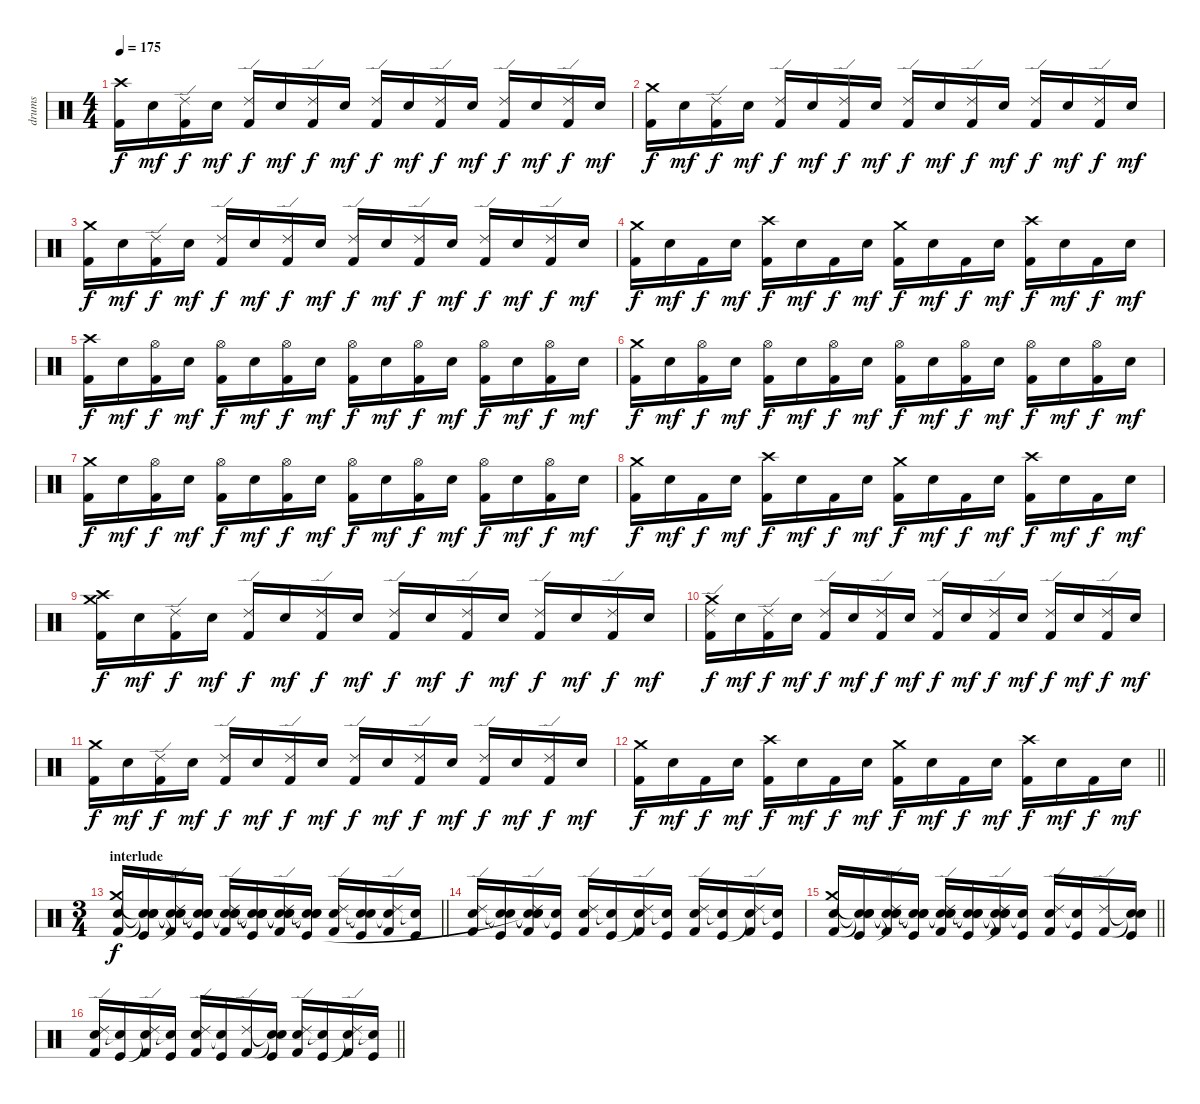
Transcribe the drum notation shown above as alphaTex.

\track ("drums" "drums") {instrument percussion}
\staff {score}
\articulation defaults
\ts (4 4)
\tempo 175
\clef neutral
\ks c
("Crash high (hit)" "Kick (hit) 2").16{dy f} "Electric Snare (hit)".16{dy mf} ("Ride (edge) 2" "Kick (hit) 2").16{dy f} "Electric Snare (hit)".16{dy mf} ("Ride (edge) 2" "Kick (hit) 2").16{dy f} "Electric Snare (hit)".16{dy mf} ("Ride (edge) 2" "Kick (hit) 2").16{dy f} "Electric Snare (hit)".16{dy mf} ("Ride (edge) 2" "Kick (hit) 2").16{dy f} "Electric Snare (hit)".16{dy mf} ("Ride (edge) 2" "Kick (hit) 2").16{dy f} "Electric Snare (hit)".16{dy mf} ("Ride (edge) 2" "Kick (hit) 2").16{dy f} "Electric Snare (hit)".16{dy mf} ("Ride (edge) 2" "Kick (hit) 2").16{dy f} "Electric Snare (hit)".16{dy mf} |
("Crash medium (hit)" "Kick (hit) 2").16{dy f} "Electric Snare (hit)".16{dy mf} ("Ride (edge) 2" "Kick (hit) 2").16{dy f} "Electric Snare (hit)".16{dy mf} ("Ride (edge) 2" "Kick (hit) 2").16{dy f} "Electric Snare (hit)".16{dy mf} ("Ride (edge) 2" "Kick (hit) 2").16{dy f} "Electric Snare (hit)".16{dy mf} ("Ride (edge) 2" "Kick (hit) 2").16{dy f} "Electric Snare (hit)".16{dy mf} ("Ride (edge) 2" "Kick (hit) 2").16{dy f} "Electric Snare (hit)".16{dy mf} ("Ride (edge) 2" "Kick (hit) 2").16{dy f} "Electric Snare (hit)".16{dy mf} ("Ride (edge) 2" "Kick (hit) 2").16{dy f} "Electric Snare (hit)".16{dy mf} |
("Crash medium (hit)" "Kick (hit) 2").16{dy f} "Electric Snare (hit)".16{dy mf} ("Ride (edge) 2" "Kick (hit) 2").16{dy f} "Electric Snare (hit)".16{dy mf} ("Ride (edge) 2" "Kick (hit) 2").16{dy f} "Electric Snare (hit)".16{dy mf} ("Ride (edge) 2" "Kick (hit) 2").16{dy f} "Electric Snare (hit)".16{dy mf} ("Ride (edge) 2" "Kick (hit) 2").16{dy f} "Electric Snare (hit)".16{dy mf} ("Ride (edge) 2" "Kick (hit) 2").16{dy f} "Electric Snare (hit)".16{dy mf} ("Ride (edge) 2" "Kick (hit) 2").16{dy f} "Electric Snare (hit)".16{dy mf} ("Ride (edge) 2" "Kick (hit) 2").16{dy f} "Electric Snare (hit)".16{dy mf} |
("Crash medium (hit)" "Kick (hit) 2").16{dy f} "Electric Snare (hit)".16{dy mf} "Kick (hit) 2".16{dy f} "Electric Snare (hit)".16{dy mf} ("Crash high (hit)" "Kick (hit) 2").16{dy f} "Electric Snare (hit)".16{dy mf} "Kick (hit) 2".16{dy f} "Electric Snare (hit)".16{dy mf} ("Crash medium (hit)" "Kick (hit) 2").16{dy f} "Electric Snare (hit)".16{dy mf} "Kick (hit) 2".16{dy f} "Electric Snare (hit)".16{dy mf} ("Crash high (hit)" "Kick (hit) 2").16{dy f} "Electric Snare (hit)".16{dy mf} "Kick (hit) 2".16{dy f} "Electric Snare (hit)".16{dy mf} |
("Crash high (hit)" "Kick (hit) 2").16{dy f} "Electric Snare (hit)".16{dy mf} ("Hi-Hat (open)" "Kick (hit) 2").16{dy f} "Electric Snare (hit)".16{dy mf} ("Hi-Hat (open)" "Kick (hit) 2").16{dy f} "Electric Snare (hit)".16{dy mf} ("Hi-Hat (open)" "Kick (hit) 2").16{dy f} "Electric Snare (hit)".16{dy mf} ("Hi-Hat (open)" "Kick (hit) 2").16{dy f} "Electric Snare (hit)".16{dy mf} ("Hi-Hat (open)" "Kick (hit) 2").16{dy f} "Electric Snare (hit)".16{dy mf} ("Hi-Hat (open)" "Kick (hit) 2").16{dy f} "Electric Snare (hit)".16{dy mf} ("Hi-Hat (open)" "Kick (hit) 2").16{dy f} "Electric Snare (hit)".16{dy mf} |
("Crash medium (hit)" "Kick (hit) 2").16{dy f} "Electric Snare (hit)".16{dy mf} ("Hi-Hat (open)" "Kick (hit) 2").16{dy f} "Electric Snare (hit)".16{dy mf} ("Hi-Hat (open)" "Kick (hit) 2").16{dy f} "Electric Snare (hit)".16{dy mf} ("Hi-Hat (open)" "Kick (hit) 2").16{dy f} "Electric Snare (hit)".16{dy mf} ("Hi-Hat (open)" "Kick (hit) 2").16{dy f} "Electric Snare (hit)".16{dy mf} ("Hi-Hat (open)" "Kick (hit) 2").16{dy f} "Electric Snare (hit)".16{dy mf} ("Hi-Hat (open)" "Kick (hit) 2").16{dy f} "Electric Snare (hit)".16{dy mf} ("Hi-Hat (open)" "Kick (hit) 2").16{dy f} "Electric Snare (hit)".16{dy mf} |
("Crash medium (hit)" "Kick (hit) 2").16{dy f} "Electric Snare (hit)".16{dy mf} ("Hi-Hat (open)" "Kick (hit) 2").16{dy f} "Electric Snare (hit)".16{dy mf} ("Hi-Hat (open)" "Kick (hit) 2").16{dy f} "Electric Snare (hit)".16{dy mf} ("Hi-Hat (open)" "Kick (hit) 2").16{dy f} "Electric Snare (hit)".16{dy mf} ("Hi-Hat (open)" "Kick (hit) 2").16{dy f} "Electric Snare (hit)".16{dy mf} ("Hi-Hat (open)" "Kick (hit) 2").16{dy f} "Electric Snare (hit)".16{dy mf} ("Hi-Hat (open)" "Kick (hit) 2").16{dy f} "Electric Snare (hit)".16{dy mf} ("Hi-Hat (open)" "Kick (hit) 2").16{dy f} "Electric Snare (hit)".16{dy mf} |
("Crash medium (hit)" "Kick (hit) 2").16{dy f} "Electric Snare (hit)".16{dy mf} "Kick (hit) 2".16{dy f} "Electric Snare (hit)".16{dy mf} ("Crash high (hit)" "Kick (hit) 2").16{dy f} "Electric Snare (hit)".16{dy mf} "Kick (hit) 2".16{dy f} "Electric Snare (hit)".16{dy mf} ("Crash medium (hit)" "Kick (hit) 2").16{dy f} "Electric Snare (hit)".16{dy mf} "Kick (hit) 2".16{dy f} "Electric Snare (hit)".16{dy mf} ("Crash high (hit)" "Kick (hit) 2").16{dy f} "Electric Snare (hit)".16{dy mf} "Kick (hit) 2".16{dy f} "Electric Snare (hit)".16{dy mf} |
("Crash high (hit)" "Crash medium (hit)" "Kick (hit) 2").16{dy f} "Electric Snare (hit)".16{dy mf} ("Ride (edge) 2" "Kick (hit) 2").16{dy f} "Electric Snare (hit)".16{dy mf} ("Ride (edge) 2" "Kick (hit) 2").16{dy f} "Electric Snare (hit)".16{dy mf} ("Ride (edge) 2" "Kick (hit) 2").16{dy f} "Electric Snare (hit)".16{dy mf} ("Ride (edge) 2" "Kick (hit) 2").16{dy f} "Electric Snare (hit)".16{dy mf} ("Ride (edge) 2" "Kick (hit) 2").16{dy f} "Electric Snare (hit)".16{dy mf} ("Ride (edge) 2" "Kick (hit) 2").16{dy f} "Electric Snare (hit)".16{dy mf} ("Ride (edge) 2" "Kick (hit) 2").16{dy f} "Electric Snare (hit)".16{dy mf} |
("Crash medium (hit)" "Ride (edge) 2" "Kick (hit) 2").16{dy f} "Electric Snare (hit)".16{dy mf} ("Ride (edge) 2" "Kick (hit) 2").16{dy f} "Electric Snare (hit)".16{dy mf} ("Ride (edge) 2" "Kick (hit) 2").16{dy f} "Electric Snare (hit)".16{dy mf} ("Ride (edge) 2" "Kick (hit) 2").16{dy f} "Electric Snare (hit)".16{dy mf} ("Ride (edge) 2" "Kick (hit) 2").16{dy f} "Electric Snare (hit)".16{dy mf} ("Ride (edge) 2" "Kick (hit) 2").16{dy f} "Electric Snare (hit)".16{dy mf} ("Ride (edge) 2" "Kick (hit) 2").16{dy f} "Electric Snare (hit)".16{dy mf} ("Ride (edge) 2" "Kick (hit) 2").16{dy f} "Electric Snare (hit)".16{dy mf} |
("Crash medium (hit)" "Kick (hit) 2").16{dy f} "Electric Snare (hit)".16{dy mf} ("Ride (edge) 2" "Kick (hit) 2").16{dy f} "Electric Snare (hit)".16{dy mf} ("Ride (edge) 2" "Kick (hit) 2").16{dy f} "Electric Snare (hit)".16{dy mf} ("Ride (edge) 2" "Kick (hit) 2").16{dy f} "Electric Snare (hit)".16{dy mf} ("Ride (edge) 2" "Kick (hit) 2").16{dy f} "Electric Snare (hit)".16{dy mf} ("Ride (edge) 2" "Kick (hit) 2").16{dy f} "Electric Snare (hit)".16{dy mf} ("Ride (edge) 2" "Kick (hit) 2").16{dy f} "Electric Snare (hit)".16{dy mf} ("Ride (edge) 2" "Kick (hit) 2").16{dy f} "Electric Snare (hit)".16{dy mf} |
\barLineRight lightlight
("Crash medium (hit)" "Kick (hit) 2").16{dy f} "Electric Snare (hit)".16{dy mf} "Kick (hit) 2".16{dy f} "Electric Snare (hit)".16{dy mf} ("Crash high (hit)" "Kick (hit) 2").16{dy f} "Electric Snare (hit)".16{dy mf} "Kick (hit) 2".16{dy f} "Electric Snare (hit)".16{dy mf} ("Crash medium (hit)" "Kick (hit) 2").16{dy f} "Electric Snare (hit)".16{dy mf} "Kick (hit) 2".16{dy f} "Electric Snare (hit)".16{dy mf} ("Crash high (hit)" "Kick (hit) 2").16{dy f} "Electric Snare (hit)".16{dy mf} "Kick (hit) 2".16{dy f} "Electric Snare (hit)".16{dy mf} |
\ts (3 4)
\section ("" "interlude")
\barLineRight lightlight
("Crash medium (hit)" "Snare (hit) 2" "Kick (hit) 2").16{dy f} ("Snare (hit)"{t} "Snare (hit)"{t} "Snare (hit)"{t} "Kick (hit)").16 ("Snare (hit)"{t} "Snare (hit)"{t} "Ride (edge) 2" "Snare (hit)"{t} "Kick (hit) 2").16 ("Snare (hit)"{t} "Snare (hit)"{t} "Snare (hit)"{t} "Kick (hit)").16 ("Snare (hit)"{t} "Snare (hit)"{t} "Ride (edge) 2" "Snare (hit) 2" "Kick (hit) 2").16 ("Snare (hit)"{t} "Snare (hit)"{t} "Snare (hit)"{t} "Snare (hit)"{t} "Kick (hit)").16 ("Snare (hit)"{t} "Snare (hit)"{t} "Ride (edge) 2" "Snare (hit)"{t} "Kick (hit) 2").16 ("Snare (hit)"{t} "Snare (hit)"{t} "Snare (hit)"{t} "Kick (hit)").16 ("Ride (edge) 2" "Snare (hit) 2" "Kick (hit) 2").16 ("Snare (hit)"{t} "Snare (hit)"{t} "Kick (hit)").16 ("Ride (edge) 2" "Snare (hit)"{t} "Kick (hit) 2").16 ("Snare (hit)"{t} "Kick (hit)").16 |
("Ride (edge) 2" "Snare (hit) 2" "Kick (hit) 2").16 ("Snare (hit)"{t} "Snare (hit)"{t} "Kick (hit)").16 ("Snare (hit)"{t} "Snare (hit)"{t} "Ride (edge) 2" "Snare (hit)"{t} "Kick (hit) 2").16 ("Snare (hit)"{t} "Kick (hit)").16 ("Ride (edge) 2" "Snare (hit) 2" "Kick (hit) 2").16 ("Snare (hit)"{t} "Kick (hit)").16 ("Ride (edge) 2" "Snare (hit)"{t} "Kick (hit) 2").16 ("Snare (hit)"{t} "Kick (hit)").16 ("Ride (edge) 2" "Snare (hit) 2" "Kick (hit) 2").16 ("Snare (hit)"{t} "Kick (hit)").16 ("Ride (edge) 2" "Snare (hit)"{t} "Kick (hit) 2").16 ("Snare (hit)"{t} "Kick (hit)").16 |
\barLineRight lightlight
("Crash medium (hit)" "Snare (hit) 2" "Kick (hit) 2").16 ("Snare (hit)"{t} "Snare (hit)"{t} "Snare (hit)"{t} "Kick (hit)").16 ("Snare (hit)"{t} "Snare (hit)"{t} "Ride (edge) 2" "Snare (hit)"{t} "Kick (hit) 2").16 ("Snare (hit)"{t} "Snare (hit)"{t} "Snare (hit)"{t} "Kick (hit)").16 ("Snare (hit)"{t} "Snare (hit)"{t} "Ride (edge) 2" "Snare (hit) 2" "Kick (hit) 2").16 ("Snare (hit)"{t} "Snare (hit)"{t} "Snare (hit)"{t} "Kick (hit)").16 ("Snare (hit)"{t} "Snare (hit)"{t} "Ride (edge) 2" "Snare (hit)"{t} "Kick (hit) 2").16 ("Snare (hit)"{t} "Kick (hit)").16 ("Snare (hit) 2" "Ride (edge) 2" "Kick (hit) 2").16 ("Snare (hit)"{t} "Kick (hit)").16 ("Ride (edge) 2" "Kick (hit) 2").16 ("Snare (hit)"{t} "Snare (hit)"{t} "Kick (hit)").16 |
\barLineRight lightlight
("Ride (edge) 2" "Snare (hit) 2" "Kick (hit) 2").16 ("Snare (hit)"{t} "Kick (hit)").16 ("Ride (edge) 2" "Snare (hit)"{t} "Kick (hit) 2").16 ("Snare (hit)"{t} "Kick (hit)").16 ("Snare (hit) 2" "Ride (edge) 2" "Kick (hit) 2").16 ("Snare (hit)"{t} "Kick (hit)").16 ("Ride (edge) 2" "Kick (hit) 2").16 ("Snare (hit)"{t} "Snare (hit)"{t} "Kick (hit)").16 ("Ride (edge) 2" "Snare (hit) 2" "Kick (hit) 2").16 ("Snare (hit)"{t} "Kick (hit)").16 ("Ride (edge) 2" "Snare (hit)"{t} "Kick (hit) 2").16 ("Snare (hit)"{t} "Kick (hit)").16
